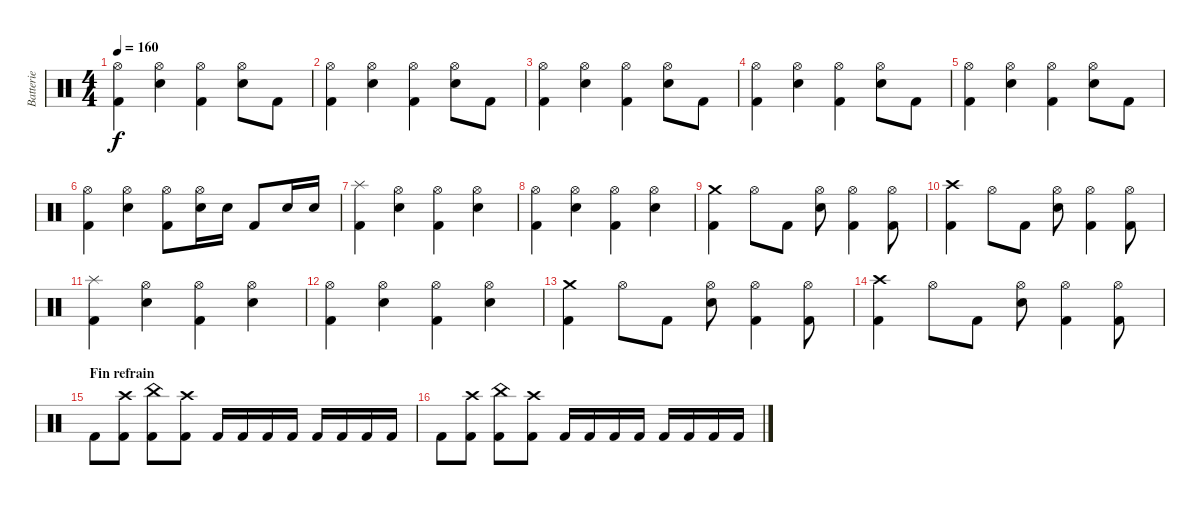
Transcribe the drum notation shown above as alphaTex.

\track ("Batterie" "Batterie") {instrument percussion}
\staff {score}
\articulation defaults
\ts (4 4)
\tempo 160
\clef neutral
\ks c
("Hi-Hat (open)" "Kick (hit) 2").4{dy f} ("Hi-Hat (open)" "Electric Snare (hit)").4 ("Hi-Hat (open)" "Kick (hit) 2").4 ("Hi-Hat (open)" "Electric Snare (hit)").8 "Kick (hit) 2".8 |
("Hi-Hat (open)" "Kick (hit) 2").4 ("Hi-Hat (open)" "Electric Snare (hit)").4 ("Hi-Hat (open)" "Kick (hit) 2").4 ("Hi-Hat (open)" "Electric Snare (hit)").8 "Kick (hit) 2".8 |
("Hi-Hat (open)" "Kick (hit) 2").4 ("Hi-Hat (open)" "Electric Snare (hit)").4 ("Hi-Hat (open)" "Kick (hit) 2").4 ("Hi-Hat (open)" "Electric Snare (hit)").8 "Kick (hit) 2".8 |
("Hi-Hat (open)" "Kick (hit) 2").4 ("Hi-Hat (open)" "Electric Snare (hit)").4 ("Hi-Hat (open)" "Kick (hit) 2").4 ("Hi-Hat (open)" "Electric Snare (hit)").8 "Kick (hit) 2".8 |
("Hi-Hat (open)" "Kick (hit) 2").4 ("Hi-Hat (open)" "Electric Snare (hit)").4 ("Hi-Hat (open)" "Kick (hit) 2").4 ("Hi-Hat (open)" "Electric Snare (hit)").8 "Kick (hit) 2".8 |
("Hi-Hat (open)" "Kick (hit) 2").4 ("Hi-Hat (open)" "Electric Snare (hit)").4 ("Hi-Hat (open)" "Kick (hit) 2").8 ("Hi-Hat (open)" "Electric Snare (hit)").16 "Electric Snare (hit)".16 "Kick (hit) 2".8 "Electric Snare (hit)".16 "Electric Snare (hit)".16 |
("Splash (hit)" "Kick (hit) 2").4 ("Hi-Hat (open)" "Electric Snare (hit)").4 ("Hi-Hat (open)" "Kick (hit) 2").4 ("Hi-Hat (open)" "Electric Snare (hit)").4 |
("Hi-Hat (open)" "Kick (hit) 2").4 ("Hi-Hat (open)" "Electric Snare (hit)").4 ("Hi-Hat (open)" "Kick (hit) 2").4 ("Hi-Hat (open)" "Electric Snare (hit)").4 |
("Crash medium (hit)" "Kick (hit) 2").4 "Hi-Hat (open)".8 "Kick (hit) 2".8 ("Hi-Hat (open)" "Electric Snare (hit)").8 ("Hi-Hat (open)" "Kick (hit) 2").4 ("Hi-Hat (open)" "Kick (hit) 2").8 |
("Crash high (hit)" "Kick (hit) 2").4 "Hi-Hat (open)".8 "Kick (hit) 2".8 ("Hi-Hat (open)" "Electric Snare (hit)").8 ("Hi-Hat (open)" "Kick (hit) 2").4 ("Hi-Hat (open)" "Kick (hit) 2").8 |
("Splash (hit)" "Kick (hit) 2").4 ("Hi-Hat (open)" "Electric Snare (hit)").4 ("Hi-Hat (open)" "Kick (hit) 2").4 ("Hi-Hat (open)" "Electric Snare (hit)").4 |
("Hi-Hat (open)" "Kick (hit) 2").4 ("Hi-Hat (open)" "Electric Snare (hit)").4 ("Hi-Hat (open)" "Kick (hit) 2").4 ("Hi-Hat (open)" "Electric Snare (hit)").4 |
("Crash medium (hit)" "Kick (hit) 2").4 "Hi-Hat (open)".8 "Kick (hit) 2".8 ("Hi-Hat (open)" "Electric Snare (hit)").8 ("Hi-Hat (open)" "Kick (hit) 2").4 ("Hi-Hat (open)" "Kick (hit) 2").8 |
("Crash high (hit)" "Kick (hit) 2").4 "Hi-Hat (open)".8 "Kick (hit) 2".8 ("Hi-Hat (open)" "Electric Snare (hit)").8 ("Hi-Hat (open)" "Kick (hit) 2").4 ("Hi-Hat (open)" "Kick (hit) 2").8 |
\section ("" "Fin refrain")
"Kick (hit) 2".8 ("Crash high (hit)" "Kick (hit) 2").8 ("China (hit)" "Kick (hit) 2").8 ("Crash high (hit)" "Kick (hit) 2").8 "Kick (hit) 2".16 "Kick (hit) 2".16 "Kick (hit) 2".16 "Kick (hit) 2".16 "Kick (hit) 2".16 "Kick (hit) 2".16 "Kick (hit) 2".16 "Kick (hit) 2".16 |
"Kick (hit) 2".8 ("Crash high (hit)" "Kick (hit) 2").8 ("China (hit)" "Kick (hit) 2").8 ("Crash high (hit)" "Kick (hit) 2").8 "Kick (hit) 2".16 "Kick (hit) 2".16 "Kick (hit) 2".16 "Kick (hit) 2".16 "Kick (hit) 2".16 "Kick (hit) 2".16 "Kick (hit) 2".16 "Kick (hit) 2".16
